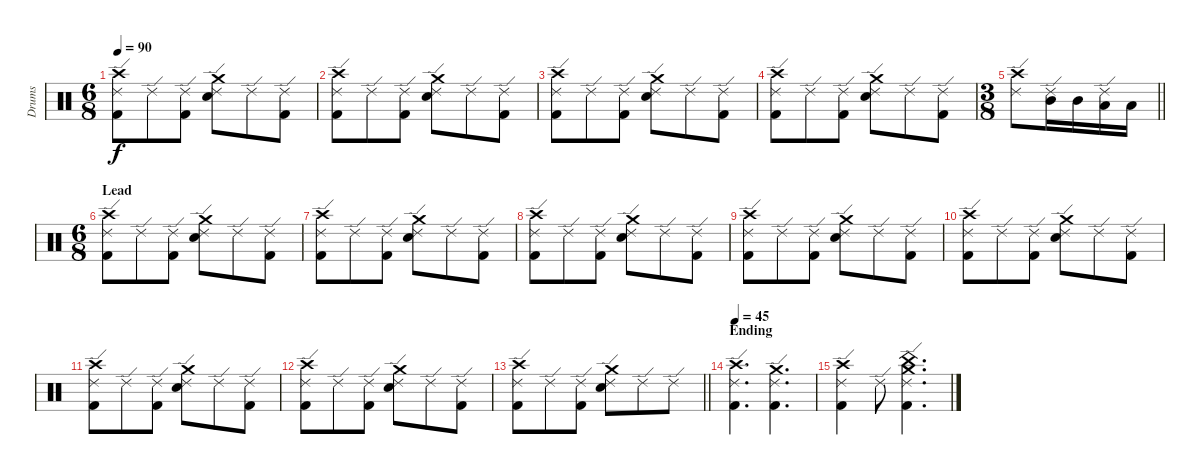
\track ("Drums" "Drums") {instrument percussion}
\staff {score}
\articulation defaults
\ts (6 8)
\tempo 90
\clef neutral
\ks c
("Ride (edge) 2" "Kick (hit) 2" "Crash high (hit)").8{dy f} "Ride (edge) 2".8 ("Ride (edge) 2" "Kick (hit) 2").8 ("Ride (edge) 2" "Snare (hit) 2" "Crash medium (hit)").8 "Ride (edge) 2".8 ("Ride (edge) 2" "Kick (hit) 2").8 |
("Ride (edge) 2" "Kick (hit) 2" "Crash high (hit)").8 "Ride (edge) 2".8 ("Ride (edge) 2" "Kick (hit) 2").8 ("Ride (edge) 2" "Snare (hit) 2" "Crash medium (hit)").8 "Ride (edge) 2".8 ("Ride (edge) 2" "Kick (hit) 2").8 |
("Ride (edge) 2" "Kick (hit) 2" "Crash high (hit)").8 "Ride (edge) 2".8 ("Ride (edge) 2" "Kick (hit) 2").8 ("Ride (edge) 2" "Snare (hit) 2" "Crash medium (hit)").8 "Ride (edge) 2".8 ("Ride (edge) 2" "Kick (hit) 2").8 |
("Ride (edge) 2" "Kick (hit) 2" "Crash high (hit)").8 "Ride (edge) 2".8 ("Ride (edge) 2" "Kick (hit) 2").8 ("Ride (edge) 2" "Snare (hit) 2" "Crash medium (hit)").8 "Ride (edge) 2".8 ("Ride (edge) 2" "Kick (hit) 2").8 |
\ts (3 8)
\barLineRight lightlight
("Ride (edge) 2" "Crash high (hit)").8 ("Ride (edge) 2" "Mid Tom (hit)").16 "Mid Tom (hit)".16 ("Ride (edge) 2" "Low Tom (hit)").16 "Low Tom (hit)".16 |
\ts (6 8)
\section ("" "Lead")
("Ride (edge) 2" "Kick (hit) 2" "Crash high (hit)").8 "Ride (edge) 2".8 ("Ride (edge) 2" "Kick (hit) 2").8 ("Ride (edge) 2" "Snare (hit) 2" "Crash medium (hit)").8 "Ride (edge) 2".8 ("Ride (edge) 2" "Kick (hit) 2").8 |
("Ride (edge) 2" "Kick (hit) 2" "Crash high (hit)").8 "Ride (edge) 2".8 ("Ride (edge) 2" "Kick (hit) 2").8 ("Ride (edge) 2" "Snare (hit) 2" "Crash medium (hit)").8 "Ride (edge) 2".8 ("Ride (edge) 2" "Kick (hit) 2").8 |
("Ride (edge) 2" "Kick (hit) 2" "Crash high (hit)").8 "Ride (edge) 2".8 ("Ride (edge) 2" "Kick (hit) 2").8 ("Ride (edge) 2" "Snare (hit) 2" "Crash medium (hit)").8 "Ride (edge) 2".8 ("Ride (edge) 2" "Kick (hit) 2").8 |
("Ride (edge) 2" "Kick (hit) 2" "Crash high (hit)").8 "Ride (edge) 2".8 ("Ride (edge) 2" "Kick (hit) 2").8 ("Ride (edge) 2" "Snare (hit) 2" "Crash medium (hit)").8 "Ride (edge) 2".8 ("Ride (edge) 2" "Kick (hit) 2").8 |
("Ride (edge) 2" "Kick (hit) 2" "Crash high (hit)").8 "Ride (edge) 2".8 ("Ride (edge) 2" "Kick (hit) 2").8 ("Ride (edge) 2" "Snare (hit) 2" "Crash medium (hit)").8 "Ride (edge) 2".8 ("Ride (edge) 2" "Kick (hit) 2").8 |
("Ride (edge) 2" "Kick (hit) 2" "Crash high (hit)").8 "Ride (edge) 2".8 ("Ride (edge) 2" "Kick (hit) 2").8 ("Ride (edge) 2" "Snare (hit) 2" "Crash medium (hit)").8 "Ride (edge) 2".8 ("Ride (edge) 2" "Kick (hit) 2").8 |
("Ride (edge) 2" "Kick (hit) 2" "Crash high (hit)").8 "Ride (edge) 2".8 ("Ride (edge) 2" "Kick (hit) 2").8 ("Ride (edge) 2" "Snare (hit) 2" "Crash medium (hit)").8 "Ride (edge) 2".8 ("Ride (edge) 2" "Kick (hit) 2").8 |
\barLineRight lightlight
("Ride (edge) 2" "Kick (hit) 2" "Crash high (hit)").8 "Ride (edge) 2".8 ("Ride (edge) 2" "Kick (hit) 2").8 ("Ride (edge) 2" "Snare (hit) 2" "Crash medium (hit)").8 "Ride (edge) 2".8 "Ride (edge) 2".8 |
\section ("" "Ending")
\tempo 45
("Ride (edge) 2" "Kick (hit) 2" "Crash high (hit)").4{d} ("Ride (edge) 2" "Kick (hit) 2" "Crash medium (hit)").4{d} |
("Ride (edge) 2" "Kick (hit) 2" "Crash high (hit)").4 "Ride (edge) 2".8 ("Ride (edge) 2" "Kick (hit) 2" "Crash medium (hit)" "China (hit)").4{d}
